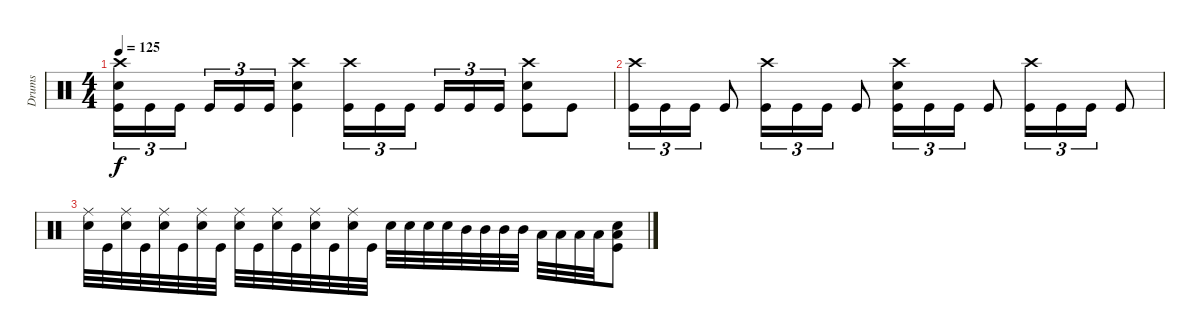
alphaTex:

\track ("Drums" "Drums") {instrument percussion}
\staff
\articulation defaults
\ts (4 4)
\tempo 125
\clef neutral
\ks c
("Crash high (hit)" "Electric Snare (hit)" "Kick (hit)").16{tu (3 2) dy f} "Kick (hit)".16{tu (3 2)} "Kick (hit)".16{tu (3 2) beam splitsecondary} "Kick (hit)".16{tu (3 2)} "Kick (hit)".16{tu (3 2)} "Kick (hit)".16{tu (3 2)} ("Crash high (hit)" "Electric Snare (hit)" "Kick (hit)").4 ("Crash high (hit)" "Kick (hit)").16{tu (3 2)} "Kick (hit)".16{tu (3 2)} "Kick (hit)".16{tu (3 2) beam splitsecondary} "Kick (hit)".16{tu (3 2)} "Kick (hit)".16{tu (3 2)} "Kick (hit)".16{tu (3 2)} ("Crash high (hit)" "Electric Snare (hit)" "Kick (hit)").8 "Kick (hit)".8 |
("Crash high (hit)" "Kick (hit)").16{tu (3 2)} "Kick (hit)".16{tu (3 2)} "Kick (hit)".16{tu (3 2)} "Kick (hit)".8 ("Crash high (hit)" "Kick (hit)").16{tu (3 2)} "Kick (hit)".16{tu (3 2)} "Kick (hit)".16{tu (3 2)} "Kick (hit)".8 ("Crash high (hit)" "Electric Snare (hit)" "Kick (hit)").16{tu (3 2)} "Kick (hit)".16{tu (3 2)} "Kick (hit)".16{tu (3 2)} "Kick (hit)".8 ("Crash high (hit)" "Kick (hit)").16{tu (3 2)} "Kick (hit)".16{tu (3 2)} "Kick (hit)".16{tu (3 2)} "Kick (hit)".8 |
("Ride (middle)" "Electric Snare (hit)").32 "Kick (hit)".32 ("Ride (middle)" "Electric Snare (hit)").32 "Kick (hit)".32 ("Ride (middle)" "Electric Snare (hit)").32 "Kick (hit)".32 ("Ride (middle)" "Electric Snare (hit)").32 "Kick (hit)".32 ("Ride (middle)" "Electric Snare (hit)").32 "Kick (hit)".32 ("Ride (middle)" "Electric Snare (hit)").32 "Kick (hit)".32 ("Ride (middle)" "Electric Snare (hit)").32 "Kick (hit)".32 ("Ride (middle)" "Electric Snare (hit)").32 "Kick (hit)".32 "Electric Snare (hit)".32 "Electric Snare (hit)".32 "Electric Snare (hit)".32 "Electric Snare (hit)".32 "Mid Tom (hit)".32 "Mid Tom (hit)".32 "Mid Tom (hit)".32 "Mid Tom (hit)".32 "Low Tom (hit)".32 "Low Tom (hit)".32 "Low Tom (hit)".32 "Low Tom (hit)".32 ("Low Floor Tom (hit)" "Electric Snare (hit)" "Kick (hit)").8
